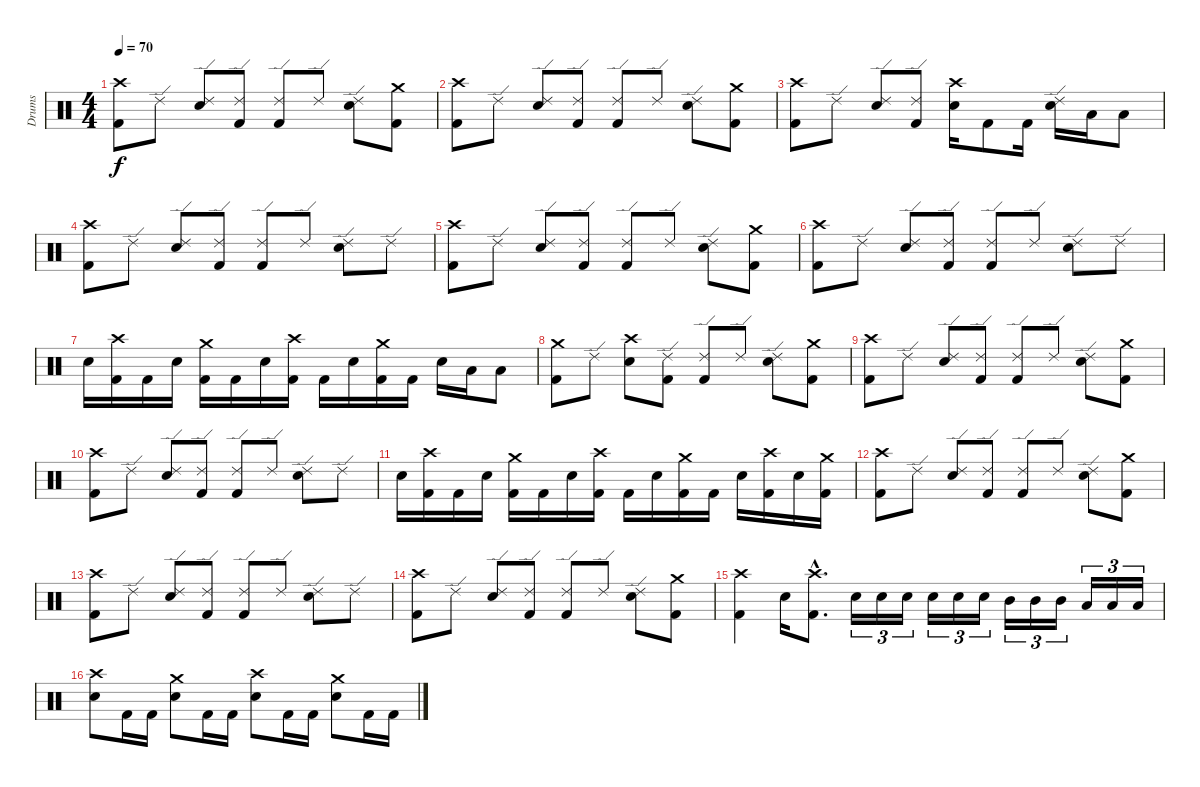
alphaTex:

\track ("Drums" "Drums") {instrument percussion}
\staff {score}
\articulation defaults
\ts (4 4)
\tempo 70
\clef neutral
\ks c
("Crash high (hit)" "Kick (hit) 2").8{dy f} "Ride (edge) 2".8 ("Ride (edge) 2" "Electric Snare (hit)").8 ("Ride (edge) 2" "Kick (hit) 2").8 ("Kick (hit) 2" "Ride (edge) 2").8 "Ride (edge) 2".8 ("Electric Snare (hit)" "Ride (edge) 2").8 ("Crash medium (hit)" "Kick (hit) 2").8 |
("Crash high (hit)" "Kick (hit) 2").8 "Ride (edge) 2".8 ("Ride (edge) 2" "Electric Snare (hit)").8 ("Ride (edge) 2" "Kick (hit) 2").8 ("Kick (hit) 2" "Ride (edge) 2").8 "Ride (edge) 2".8 ("Electric Snare (hit)" "Ride (edge) 2").8 ("Crash medium (hit)" "Kick (hit) 2").8 |
("Crash high (hit)" "Kick (hit) 2").8 "Ride (edge) 2".8 ("Ride (edge) 2" "Electric Snare (hit)").8 ("Ride (edge) 2" "Kick (hit) 2").8 ("Electric Snare (hit)" "Crash high (hit)").16 "Kick (hit) 2".8 "Kick (hit) 2".16 ("Electric Snare (hit)" "Ride (edge) 2").16 "Low Tom (hit)".16 "Low Tom (hit)".8 |
("Crash high (hit)" "Kick (hit) 2").8 "Ride (edge) 2".8 ("Ride (edge) 2" "Electric Snare (hit)").8 ("Ride (edge) 2" "Kick (hit) 2").8 ("Kick (hit) 2" "Ride (edge) 2").8 "Ride (edge) 2".8 ("Electric Snare (hit)" "Ride (edge) 2").8 "Ride (edge) 2".8 |
("Crash high (hit)" "Kick (hit) 2").8 "Ride (edge) 2".8 ("Ride (edge) 2" "Electric Snare (hit)").8 ("Ride (edge) 2" "Kick (hit) 2").8 ("Kick (hit) 2" "Ride (edge) 2").8 "Ride (edge) 2".8 ("Electric Snare (hit)" "Ride (edge) 2").8 ("Crash medium (hit)" "Kick (hit) 2").8 |
("Crash high (hit)" "Kick (hit) 2").8 "Ride (edge) 2".8 ("Ride (edge) 2" "Electric Snare (hit)").8 ("Ride (edge) 2" "Kick (hit) 2").8 ("Kick (hit) 2" "Ride (edge) 2").8 "Ride (edge) 2".8 ("Electric Snare (hit)" "Ride (edge) 2").8 "Ride (edge) 2".8 |
"Electric Snare (hit)".16 ("Crash high (hit)" "Kick (hit) 2").16 "Kick (hit) 2".16 "Electric Snare (hit)".16 ("Crash medium (hit)" "Kick (hit) 2").16 "Kick (hit) 2".16 "Electric Snare (hit)".16 ("Crash high (hit)" "Kick (hit) 2").16 "Kick (hit) 2".16 "Electric Snare (hit)".16 ("Crash medium (hit)" "Kick (hit) 2").16 "Kick (hit) 2".16 "Electric Snare (hit)".16 "Low Tom (hit)".16 "Low Tom (hit)".8 |
("Crash medium (hit)" "Kick (hit) 2").8 "Ride (edge) 2".8 ("Crash high (hit)" "Electric Snare (hit)").8 ("Ride (edge) 2" "Kick (hit) 2").8 ("Kick (hit) 2" "Ride (edge) 2").8 "Ride (edge) 2".8 ("Electric Snare (hit)" "Ride (edge) 2").8 ("Crash medium (hit)" "Kick (hit) 2").8 |
("Crash high (hit)" "Kick (hit) 2").8 "Ride (edge) 2".8 ("Ride (edge) 2" "Electric Snare (hit)").8 ("Ride (edge) 2" "Kick (hit) 2").8 ("Kick (hit) 2" "Ride (edge) 2").8 "Ride (edge) 2".8 ("Electric Snare (hit)" "Ride (edge) 2").8 ("Crash medium (hit)" "Kick (hit) 2").8 |
("Crash high (hit)" "Kick (hit) 2").8 "Ride (edge) 2".8 ("Ride (edge) 2" "Electric Snare (hit)").8 ("Ride (edge) 2" "Kick (hit) 2").8 ("Kick (hit) 2" "Ride (edge) 2").8 "Ride (edge) 2".8 ("Electric Snare (hit)" "Ride (edge) 2").8 "Ride (edge) 2".8 |
"Electric Snare (hit)".16 ("Crash high (hit)" "Kick (hit) 2").16 "Kick (hit) 2".16 "Electric Snare (hit)".16 ("Crash medium (hit)" "Kick (hit) 2").16 "Kick (hit) 2".16 "Electric Snare (hit)".16 ("Crash high (hit)" "Kick (hit) 2").16 "Kick (hit) 2".16 "Electric Snare (hit)".16 ("Crash medium (hit)" "Kick (hit) 2").16 "Kick (hit) 2".16 "Electric Snare (hit)".16 ("Crash high (hit)" "Kick (hit) 2").16 "Electric Snare (hit)".16 ("Crash medium (hit)" "Kick (hit) 2").16 |
("Crash high (hit)" "Kick (hit) 2").8 "Ride (edge) 2".8 ("Ride (edge) 2" "Electric Snare (hit)").8 ("Ride (edge) 2" "Kick (hit) 2").8 ("Kick (hit) 2" "Ride (edge) 2").8 "Ride (edge) 2".8 ("Electric Snare (hit)" "Ride (edge) 2").8 ("Crash medium (hit)" "Kick (hit) 2").8 |
("Crash high (hit)" "Kick (hit) 2").8 "Ride (edge) 2".8 ("Ride (edge) 2" "Electric Snare (hit)").8 ("Ride (edge) 2" "Kick (hit) 2").8 ("Kick (hit) 2" "Ride (edge) 2").8 "Ride (edge) 2".8 ("Electric Snare (hit)" "Ride (edge) 2").8 "Ride (edge) 2".8 |
("Crash high (hit)" "Kick (hit) 2").8 "Ride (edge) 2".8 ("Ride (edge) 2" "Electric Snare (hit)").8 ("Ride (edge) 2" "Kick (hit) 2").8 ("Kick (hit) 2" "Ride (edge) 2").8 "Ride (edge) 2".8 ("Electric Snare (hit)" "Ride (edge) 2").8 ("Crash medium (hit)" "Kick (hit) 2").8 |
("Crash high (hit)" "Kick (hit) 2").4 "Electric Snare (hit)".16 ("Crash high (hit)"{hac} "Kick (hit) 2"{hac}).8{d} "Electric Snare (hit)".16{tu (3 2)} "Electric Snare (hit)".16{tu (3 2)} "Electric Snare (hit)".16{tu (3 2)} "Electric Snare (hit)".16{tu (3 2)} "Electric Snare (hit)".16{tu (3 2)} "Electric Snare (hit)".16{tu (3 2)} "Mid Tom (hit)".16{tu (3 2)} "Mid Tom (hit)".16{tu (3 2)} "Mid Tom (hit)".16{tu (3 2)} "Low Tom (hit)".16{tu (3 2)} "Low Tom (hit)".16{tu (3 2)} "Low Tom (hit)".16{tu (3 2)} |
("Crash high (hit)" "Electric Snare (hit)").8 "Kick (hit) 2".16 "Kick (hit) 2".16 ("Crash medium (hit)" "Electric Snare (hit)").8 "Kick (hit) 2".16 "Kick (hit) 2".16 ("Crash high (hit)" "Electric Snare (hit)").8 "Kick (hit) 2".16 "Kick (hit) 2".16 ("Crash medium (hit)" "Electric Snare (hit)").8 "Kick (hit) 2".16 "Kick (hit) 2".16
